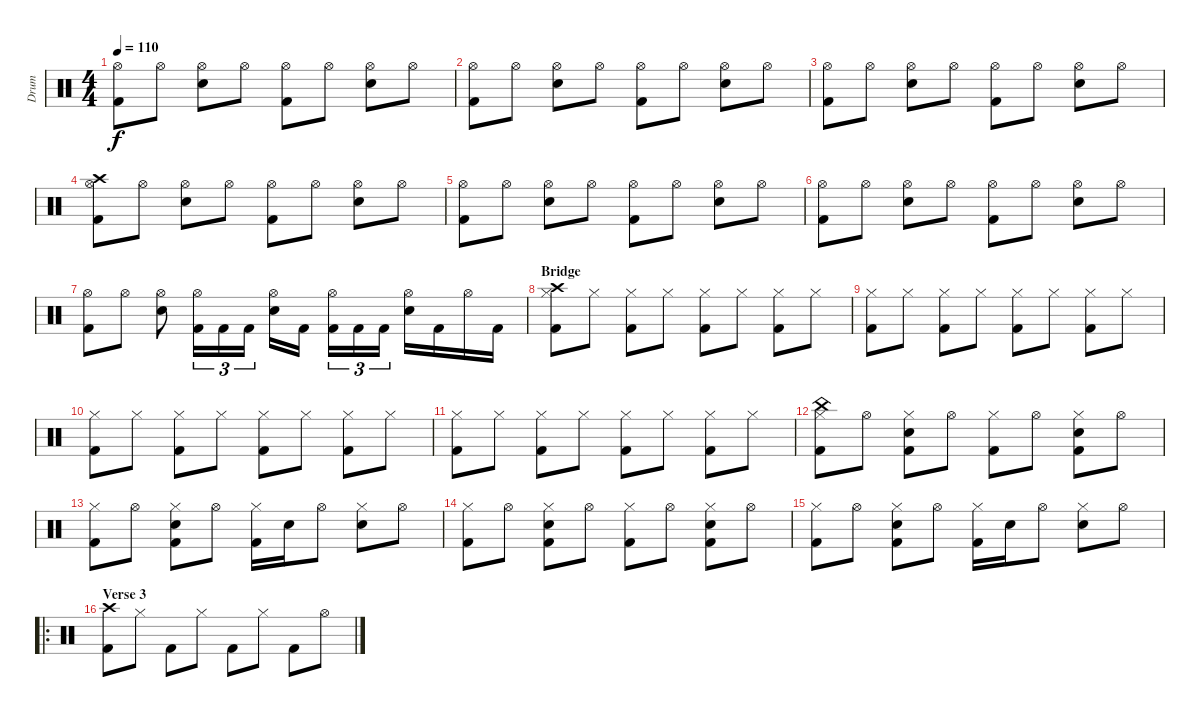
\track ("Drum" "Drum") {instrument percussion}
\staff {score}
\articulation defaults
\ts (4 4)
\tempo 110
\clef neutral
\ks c
("Hi-Hat (open)" "Kick (hit) 2").8{dy f} "Hi-Hat (open)".8 ("Hi-Hat (open)" "Electric Snare (hit)").8 "Hi-Hat (open)".8 ("Hi-Hat (open)" "Kick (hit) 2").8 "Hi-Hat (open)".8 ("Hi-Hat (open)" "Electric Snare (hit)").8 "Hi-Hat (open)".8 |
("Hi-Hat (open)" "Kick (hit) 2").8 "Hi-Hat (open)".8 ("Hi-Hat (open)" "Electric Snare (hit)").8 "Hi-Hat (open)".8 ("Hi-Hat (open)" "Kick (hit) 2").8 "Hi-Hat (open)".8 ("Hi-Hat (open)" "Electric Snare (hit)").8 "Hi-Hat (open)".8 |
("Hi-Hat (open)" "Kick (hit) 2").8 "Hi-Hat (open)".8 ("Hi-Hat (open)" "Electric Snare (hit)").8 "Hi-Hat (open)".8 ("Hi-Hat (open)" "Kick (hit) 2").8 "Hi-Hat (open)".8 ("Hi-Hat (open)" "Electric Snare (hit)").8 "Hi-Hat (open)".8 |
("Crash high (hit)" "Hi-Hat (open)" "Kick (hit) 2").8 "Hi-Hat (open)".8 ("Hi-Hat (open)" "Electric Snare (hit)").8 "Hi-Hat (open)".8 ("Hi-Hat (open)" "Kick (hit) 2").8 "Hi-Hat (open)".8 ("Hi-Hat (open)" "Electric Snare (hit)").8 "Hi-Hat (open)".8 |
("Hi-Hat (open)" "Kick (hit) 2").8 "Hi-Hat (open)".8 ("Hi-Hat (open)" "Electric Snare (hit)").8 "Hi-Hat (open)".8 ("Hi-Hat (open)" "Kick (hit) 2").8 "Hi-Hat (open)".8 ("Hi-Hat (open)" "Electric Snare (hit)").8 "Hi-Hat (open)".8 |
("Hi-Hat (open)" "Kick (hit) 2").8 "Hi-Hat (open)".8 ("Hi-Hat (open)" "Electric Snare (hit)").8 "Hi-Hat (open)".8 ("Hi-Hat (open)" "Kick (hit) 2").8 "Hi-Hat (open)".8 ("Hi-Hat (open)" "Electric Snare (hit)").8 "Hi-Hat (open)".8 |
("Hi-Hat (open)" "Kick (hit) 2").8 "Hi-Hat (open)".8 ("Hi-Hat (open)" "Electric Snare (hit)").8 ("Hi-Hat (open)" "Kick (hit) 2").16{tu (3 2)} "Kick (hit) 2".16{tu (3 2)} "Kick (hit) 2".16{tu (3 2)} ("Hi-Hat (open)" "Electric Snare (hit)").16 "Kick (hit) 2".16 ("Hi-Hat (open)" "Kick (hit) 2").16{tu (3 2)} "Kick (hit) 2".16{tu (3 2)} "Kick (hit) 2".16{tu (3 2)} ("Hi-Hat (open)" "Electric Snare (hit)").16 "Kick (hit) 2".16 "Hi-Hat (open)".16 "Kick (hit) 2".16 |
\section ("" "Bridge")
("Crash high (hit)" "Hi-Hat (closed)" "Kick (hit) 2").8 "Hi-Hat (closed)".8 ("Hi-Hat (closed)" "Kick (hit) 2").8 "Hi-Hat (closed)".8 ("Hi-Hat (closed)" "Kick (hit) 2").8 "Hi-Hat (closed)".8 ("Hi-Hat (closed)" "Kick (hit) 2").8 "Hi-Hat (closed)".8 |
("Hi-Hat (closed)" "Kick (hit) 2").8 "Hi-Hat (closed)".8 ("Hi-Hat (closed)" "Kick (hit) 2").8 "Hi-Hat (closed)".8 ("Hi-Hat (closed)" "Kick (hit) 2").8 "Hi-Hat (closed)".8 ("Hi-Hat (closed)" "Kick (hit) 2").8 "Hi-Hat (closed)".8 |
("Hi-Hat (closed)" "Kick (hit) 2").8 "Hi-Hat (closed)".8 ("Hi-Hat (closed)" "Kick (hit) 2").8 "Hi-Hat (closed)".8 ("Hi-Hat (closed)" "Kick (hit) 2").8 "Hi-Hat (closed)".8 ("Hi-Hat (closed)" "Kick (hit) 2").8 "Hi-Hat (closed)".8 |
("Hi-Hat (closed)" "Kick (hit) 2").8 "Hi-Hat (closed)".8 ("Hi-Hat (closed)" "Kick (hit) 2").8 "Hi-Hat (closed)".8 ("Hi-Hat (closed)" "Kick (hit) 2").8 "Hi-Hat (closed)".8 ("Hi-Hat (closed)" "Kick (hit) 2").8 "Hi-Hat (closed)".8 |
("China (hit)" "Hi-Hat (closed)" "Kick (hit) 2").8 "Hi-Hat (open)".8 ("Hi-Hat (closed)" "Electric Snare (hit)" "Kick (hit) 2").8 "Hi-Hat (open)".8 ("Hi-Hat (closed)" "Kick (hit) 2").8 "Hi-Hat (open)".8 ("Hi-Hat (closed)" "Electric Snare (hit)" "Kick (hit) 2").8 "Hi-Hat (open)".8 |
("Hi-Hat (closed)" "Kick (hit) 2").8 "Hi-Hat (open)".8 ("Hi-Hat (closed)" "Electric Snare (hit)" "Kick (hit) 2").8 "Hi-Hat (open)".8 ("Hi-Hat (closed)" "Kick (hit) 2").16 "Electric Snare (hit)".16 "Hi-Hat (open)".8 ("Hi-Hat (closed)" "Electric Snare (hit)").8 "Hi-Hat (open)".8 |
("Hi-Hat (closed)" "Kick (hit) 2").8 "Hi-Hat (open)".8 ("Hi-Hat (closed)" "Electric Snare (hit)" "Kick (hit) 2").8 "Hi-Hat (open)".8 ("Hi-Hat (closed)" "Kick (hit) 2").8 "Hi-Hat (open)".8 ("Hi-Hat (closed)" "Electric Snare (hit)" "Kick (hit) 2").8 "Hi-Hat (open)".8 |
("Hi-Hat (closed)" "Kick (hit) 2").8 "Hi-Hat (open)".8 ("Hi-Hat (closed)" "Electric Snare (hit)" "Kick (hit) 2").8 "Hi-Hat (open)".8 ("Hi-Hat (closed)" "Kick (hit) 2").16 "Electric Snare (hit)".16 "Hi-Hat (open)".8 ("Hi-Hat (closed)" "Electric Snare (hit)").8 "Hi-Hat (open)".8 |
\ro
\section ("" "Verse 3")
("Crash high (hit)" "Kick (hit) 2").8 "Hi-Hat (closed)".8 "Kick (hit) 2".8 "Hi-Hat (closed)".8 "Kick (hit) 2".8 "Hi-Hat (closed)".8 "Kick (hit) 2".8 "Hi-Hat (open)".8
